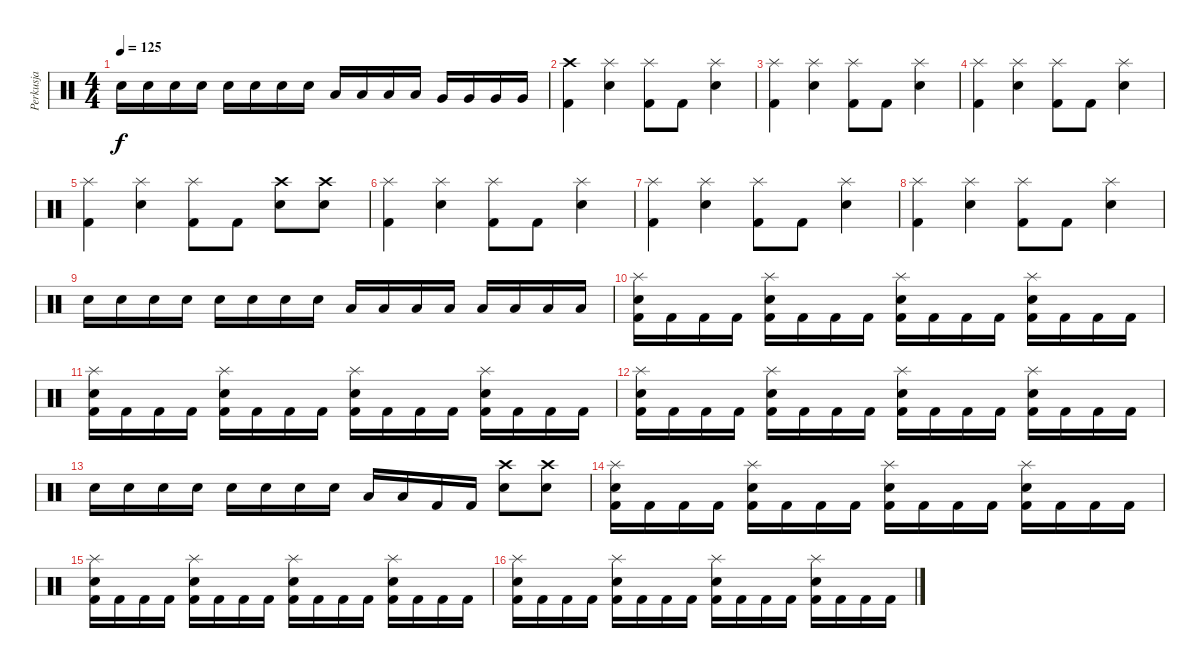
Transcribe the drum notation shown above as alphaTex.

\track ("Perkusja" "Perkusja") {instrument percussion}
\staff {score}
\articulation defaults
\ts (4 4)
\tempo 125
\clef neutral
\ks c "Snare (hit) 2".16{dy f} "Snare (hit) 2".16 "Snare (hit) 2".16 "Snare (hit) 2".16 "Snare (hit) 2".16 "Snare (hit) 2".16 "Snare (hit) 2".16 "Snare (hit) 2".16 "Low Tom (hit)".16 "Low Tom (hit)".16 "Low Tom (hit)".16 "Low Tom (hit)".16 "Very Low Tom (hit)".16 "Very Low Tom (hit)".16 "Very Low Tom (hit)".16 "Very Low Tom (hit)".16
|
("Crash high (hit)" "Kick (hit) 2").4 ("Splash (hit)" "Snare (hit) 2").4 ("Splash (hit)" "Kick (hit) 2").8 "Kick (hit) 2".8 ("Splash (hit)" "Snare (hit) 2").4 |
("Splash (hit)" "Kick (hit) 2").4 ("Splash (hit)" "Snare (hit) 2").4 ("Splash (hit)" "Kick (hit) 2").8 "Kick (hit) 2".8 ("Splash (hit)" "Snare (hit) 2").4 |
("Splash (hit)" "Kick (hit) 2").4 ("Splash (hit)" "Snare (hit) 2").4 ("Splash (hit)" "Kick (hit) 2").8 "Kick (hit) 2".8 ("Splash (hit)" "Snare (hit) 2").4 |
("Splash (hit)" "Kick (hit) 2").4 ("Splash (hit)" "Snare (hit) 2").4 ("Splash (hit)" "Kick (hit) 2").8 "Kick (hit) 2".8 ("Crash high (hit)" "Snare (hit) 2").8 ("Crash high (hit)" "Snare (hit) 2").8 |
("Splash (hit)" "Kick (hit) 2").4 ("Splash (hit)" "Snare (hit) 2").4 ("Splash (hit)" "Kick (hit) 2").8 "Kick (hit) 2".8 ("Splash (hit)" "Snare (hit) 2").4 |
("Splash (hit)" "Kick (hit) 2").4 ("Splash (hit)" "Snare (hit) 2").4 ("Splash (hit)" "Kick (hit) 2").8 "Kick (hit) 2".8 ("Splash (hit)" "Snare (hit) 2").4 |
("Splash (hit)" "Kick (hit) 2").4 ("Splash (hit)" "Snare (hit) 2").4 ("Splash (hit)" "Kick (hit) 2").8 "Kick (hit) 2".8 ("Splash (hit)" "Snare (hit) 2").4 |
"Snare (hit) 2".16 "Snare (hit) 2".16 "Snare (hit) 2".16 "Snare (hit) 2".16 "Snare (hit) 2".16 "Snare (hit) 2".16 "Snare (hit) 2".16 "Snare (hit) 2".16 "Low Tom (hit)".16 "Low Tom (hit)".16 "Low Tom (hit)".16 "Low Tom (hit)".16 "Low Tom (hit)".16 "Low Tom (hit)".16 "Low Tom (hit)".16 "Low Tom (hit)".16 |
("Splash (hit)" "Snare (hit) 2" "Kick (hit) 2").16 "Kick (hit) 2".16 "Kick (hit) 2".16 "Kick (hit) 2".16 ("Splash (hit)" "Snare (hit) 2" "Kick (hit) 2").16 "Kick (hit) 2".16 "Kick (hit) 2".16 "Kick (hit) 2".16 ("Splash (hit)" "Snare (hit) 2" "Kick (hit) 2").16 "Kick (hit) 2".16 "Kick (hit) 2".16 "Kick (hit) 2".16 ("Splash (hit)" "Snare (hit) 2" "Kick (hit) 2").16 "Kick (hit) 2".16 "Kick (hit) 2".16 "Kick (hit) 2".16 |
("Splash (hit)" "Snare (hit) 2" "Kick (hit) 2").16 "Kick (hit) 2".16 "Kick (hit) 2".16 "Kick (hit) 2".16 ("Splash (hit)" "Snare (hit) 2" "Kick (hit) 2").16 "Kick (hit) 2".16 "Kick (hit) 2".16 "Kick (hit) 2".16 ("Splash (hit)" "Snare (hit) 2" "Kick (hit) 2").16 "Kick (hit) 2".16 "Kick (hit) 2".16 "Kick (hit) 2".16 ("Splash (hit)" "Snare (hit) 2" "Kick (hit) 2").16 "Kick (hit) 2".16 "Kick (hit) 2".16 "Kick (hit) 2".16 |
("Splash (hit)" "Snare (hit) 2" "Kick (hit) 2").16 "Kick (hit) 2".16 "Kick (hit) 2".16 "Kick (hit) 2".16 ("Splash (hit)" "Snare (hit) 2" "Kick (hit) 2").16 "Kick (hit) 2".16 "Kick (hit) 2".16 "Kick (hit) 2".16 ("Splash (hit)" "Snare (hit) 2" "Kick (hit) 2").16 "Kick (hit) 2".16 "Kick (hit) 2".16 "Kick (hit) 2".16 ("Splash (hit)" "Snare (hit) 2" "Kick (hit) 2").16 "Kick (hit) 2".16 "Kick (hit) 2".16 "Kick (hit) 2".16 |
"Snare (hit) 2".16 "Snare (hit) 2".16 "Snare (hit) 2".16 "Snare (hit) 2".16 "Snare (hit) 2".16 "Snare (hit) 2".16 "Snare (hit) 2".16 "Snare (hit) 2".16 "Low Tom (hit)".16 "Low Tom (hit)".16 "Kick (hit) 2".16 "Kick (hit) 2".16 ("Crash high (hit)" "Snare (hit) 2").8 ("Crash high (hit)" "Snare (hit) 2").8 |
("Splash (hit)" "Snare (hit) 2" "Kick (hit) 2").16 "Kick (hit) 2".16 "Kick (hit) 2".16 "Kick (hit) 2".16 ("Splash (hit)" "Snare (hit) 2" "Kick (hit) 2").16 "Kick (hit) 2".16 "Kick (hit) 2".16 "Kick (hit) 2".16 ("Splash (hit)" "Snare (hit) 2" "Kick (hit) 2").16 "Kick (hit) 2".16 "Kick (hit) 2".16 "Kick (hit) 2".16 ("Splash (hit)" "Snare (hit) 2" "Kick (hit) 2").16 "Kick (hit) 2".16 "Kick (hit) 2".16 "Kick (hit) 2".16 |
("Splash (hit)" "Snare (hit) 2" "Kick (hit) 2").16 "Kick (hit) 2".16 "Kick (hit) 2".16 "Kick (hit) 2".16 ("Splash (hit)" "Snare (hit) 2" "Kick (hit) 2").16 "Kick (hit) 2".16 "Kick (hit) 2".16 "Kick (hit) 2".16 ("Splash (hit)" "Snare (hit) 2" "Kick (hit) 2").16 "Kick (hit) 2".16 "Kick (hit) 2".16 "Kick (hit) 2".16 ("Splash (hit)" "Snare (hit) 2" "Kick (hit) 2").16 "Kick (hit) 2".16 "Kick (hit) 2".16 "Kick (hit) 2".16 |
("Splash (hit)" "Snare (hit) 2" "Kick (hit) 2").16 "Kick (hit) 2".16 "Kick (hit) 2".16 "Kick (hit) 2".16 ("Splash (hit)" "Snare (hit) 2" "Kick (hit) 2").16 "Kick (hit) 2".16 "Kick (hit) 2".16 "Kick (hit) 2".16 ("Splash (hit)" "Snare (hit) 2" "Kick (hit) 2").16 "Kick (hit) 2".16 "Kick (hit) 2".16 "Kick (hit) 2".16 ("Splash (hit)" "Snare (hit) 2" "Kick (hit) 2").16 "Kick (hit) 2".16 "Kick (hit) 2".16 "Kick (hit) 2".16
